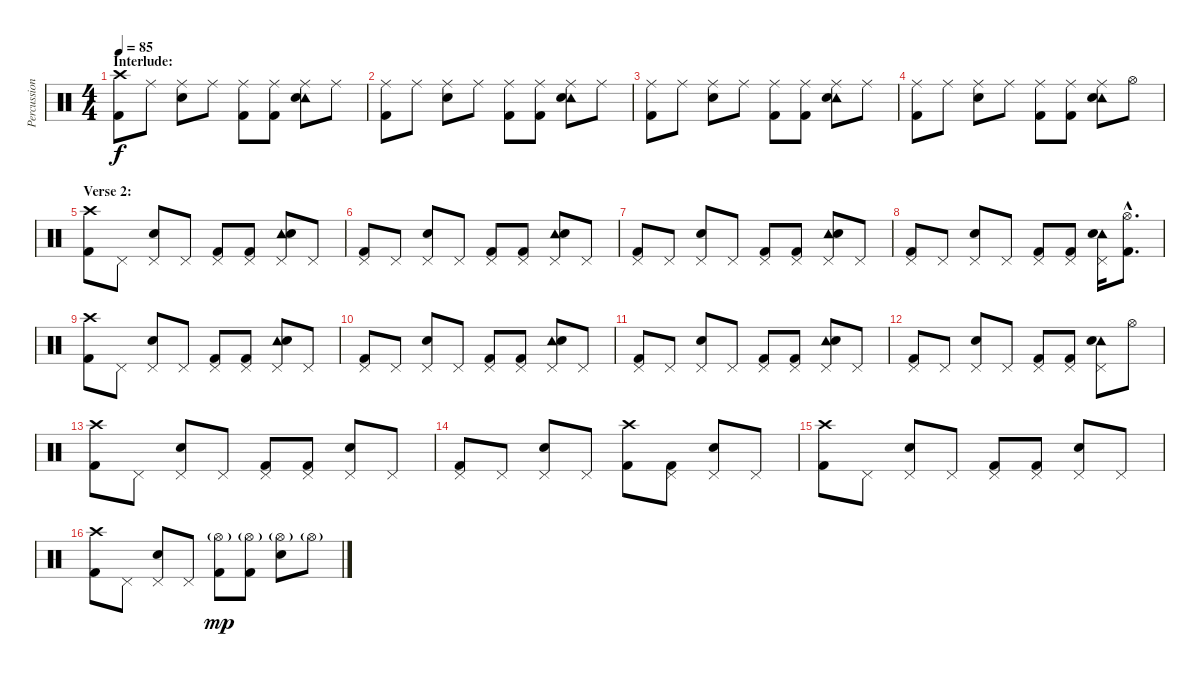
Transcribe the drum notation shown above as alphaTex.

\track ("Percussion" "Percussion") {instrument percussion}
\staff {score}
\articulation defaults
\ts (4 4)
\section ("" "Interlude:")
\tempo 85
\clef neutral
\ks c
("Crash high (hit)" "Kick (hit) 2").8{dy f} "Ride (middle)".8 ("Ride (middle)" "Electric Snare (hit)").8 "Ride (middle)".8 ("Ride (middle)" "Kick (hit) 2").8 ("Ride (middle)" "Kick (hit) 2").8 ("Ride (middle)" "Tambourine (hit)" "Electric Snare (hit)").8 "Ride (middle)".8 |
("Ride (middle)" "Kick (hit) 2").8 "Ride (middle)".8 ("Ride (middle)" "Electric Snare (hit)").8 "Ride (middle)".8 ("Ride (middle)" "Kick (hit) 2").8 ("Ride (middle)" "Kick (hit) 2").8 ("Ride (middle)" "Tambourine (hit)" "Electric Snare (hit)").8 "Ride (middle)".8 |
("Ride (middle)" "Kick (hit) 2").8 "Ride (middle)".8 ("Ride (middle)" "Electric Snare (hit)").8 "Ride (middle)".8 ("Ride (middle)" "Kick (hit) 2").8 ("Ride (middle)" "Kick (hit) 2").8 ("Ride (middle)" "Tambourine (hit)" "Electric Snare (hit)").8 "Ride (middle)".8 |
("Ride (middle)" "Kick (hit) 2").8 "Ride (middle)".8 ("Ride (middle)" "Electric Snare (hit)").8 "Ride (middle)".8 ("Ride (middle)" "Kick (hit) 2").8 ("Ride (middle)" "Kick (hit) 2").8 ("Ride (middle)" "Tambourine (hit)" "Electric Snare (hit)").8 "Hi-Hat (open)".8 |
\section ("" "Verse 2:")
("Crash high (hit)" "Kick (hit) 2").8 "Pedal Hi-Hat (hit)".8 ("Pedal Hi-Hat (hit)" "Electric Snare (hit)").8 "Pedal Hi-Hat (hit)".8 ("Pedal Hi-Hat (hit)" "Kick (hit) 2").8 ("Pedal Hi-Hat (hit)" "Kick (hit) 2").8 ("Pedal Hi-Hat (hit)" "Tambourine (hit)" "Electric Snare (hit)").8 "Pedal Hi-Hat (hit)".8 |
("Pedal Hi-Hat (hit)" "Kick (hit) 2").8 "Pedal Hi-Hat (hit)".8 ("Pedal Hi-Hat (hit)" "Electric Snare (hit)").8 "Pedal Hi-Hat (hit)".8 ("Pedal Hi-Hat (hit)" "Kick (hit) 2").8 ("Pedal Hi-Hat (hit)" "Kick (hit) 2").8 ("Pedal Hi-Hat (hit)" "Tambourine (hit)" "Electric Snare (hit)").8 "Pedal Hi-Hat (hit)".8 |
("Pedal Hi-Hat (hit)" "Kick (hit) 2").8 "Pedal Hi-Hat (hit)".8 ("Pedal Hi-Hat (hit)" "Electric Snare (hit)").8 "Pedal Hi-Hat (hit)".8 ("Pedal Hi-Hat (hit)" "Kick (hit) 2").8 ("Pedal Hi-Hat (hit)" "Kick (hit) 2").8 ("Pedal Hi-Hat (hit)" "Tambourine (hit)" "Electric Snare (hit)").8 "Pedal Hi-Hat (hit)".8 |
("Pedal Hi-Hat (hit)" "Kick (hit) 2").8 "Pedal Hi-Hat (hit)".8 ("Pedal Hi-Hat (hit)" "Electric Snare (hit)").8 "Pedal Hi-Hat (hit)".8 ("Pedal Hi-Hat (hit)" "Kick (hit) 2").8 ("Pedal Hi-Hat (hit)" "Kick (hit) 2").8 ("Pedal Hi-Hat (hit)" "Tambourine (hit)" "Electric Snare (hit)").16 ("Hi-Hat (open)"{hac} "Kick (hit) 2"{hac}).8{d} |
("Crash high (hit)" "Kick (hit) 2").8 "Pedal Hi-Hat (hit)".8 ("Pedal Hi-Hat (hit)" "Electric Snare (hit)").8 "Pedal Hi-Hat (hit)".8 ("Pedal Hi-Hat (hit)" "Kick (hit) 2").8 ("Pedal Hi-Hat (hit)" "Kick (hit) 2").8 ("Pedal Hi-Hat (hit)" "Tambourine (hit)" "Electric Snare (hit)").8 "Pedal Hi-Hat (hit)".8 |
("Pedal Hi-Hat (hit)" "Kick (hit) 2").8 "Pedal Hi-Hat (hit)".8 ("Pedal Hi-Hat (hit)" "Electric Snare (hit)").8 "Pedal Hi-Hat (hit)".8 ("Pedal Hi-Hat (hit)" "Kick (hit) 2").8 ("Pedal Hi-Hat (hit)" "Kick (hit) 2").8 ("Pedal Hi-Hat (hit)" "Tambourine (hit)" "Electric Snare (hit)").8 "Pedal Hi-Hat (hit)".8 |
("Pedal Hi-Hat (hit)" "Kick (hit) 2").8 "Pedal Hi-Hat (hit)".8 ("Pedal Hi-Hat (hit)" "Electric Snare (hit)").8 "Pedal Hi-Hat (hit)".8 ("Pedal Hi-Hat (hit)" "Kick (hit) 2").8 ("Pedal Hi-Hat (hit)" "Kick (hit) 2").8 ("Pedal Hi-Hat (hit)" "Tambourine (hit)" "Electric Snare (hit)").8 "Pedal Hi-Hat (hit)".8 |
("Pedal Hi-Hat (hit)" "Kick (hit) 2").8 "Pedal Hi-Hat (hit)".8 ("Pedal Hi-Hat (hit)" "Electric Snare (hit)").8 "Pedal Hi-Hat (hit)".8 ("Pedal Hi-Hat (hit)" "Kick (hit) 2").8 ("Pedal Hi-Hat (hit)" "Kick (hit) 2").8 ("Pedal Hi-Hat (hit)" "Tambourine (hit)" "Electric Snare (hit)").8 "Hi-Hat (open)".8 |
("Crash high (hit)" "Kick (hit) 2").8 "Pedal Hi-Hat (hit)".8 ("Pedal Hi-Hat (hit)" "Electric Snare (hit)").8 "Pedal Hi-Hat (hit)".8 ("Pedal Hi-Hat (hit)" "Kick (hit) 2").8 ("Pedal Hi-Hat (hit)" "Kick (hit) 2").8 ("Pedal Hi-Hat (hit)" "Electric Snare (hit)").8 "Pedal Hi-Hat (hit)".8 |
("Pedal Hi-Hat (hit)" "Kick (hit) 2").8 "Pedal Hi-Hat (hit)".8 ("Pedal Hi-Hat (hit)" "Electric Snare (hit)").8 "Pedal Hi-Hat (hit)".8 ("Crash high (hit)" "Kick (hit) 2").8 ("Pedal Hi-Hat (hit)" "Kick (hit) 2").8 ("Pedal Hi-Hat (hit)" "Electric Snare (hit)").8 "Pedal Hi-Hat (hit)".8 |
("Crash high (hit)" "Kick (hit) 2").8 "Pedal Hi-Hat (hit)".8 ("Pedal Hi-Hat (hit)" "Electric Snare (hit)").8 "Pedal Hi-Hat (hit)".8 ("Pedal Hi-Hat (hit)" "Kick (hit) 2").8 ("Pedal Hi-Hat (hit)" "Kick (hit) 2").8 ("Pedal Hi-Hat (hit)" "Electric Snare (hit)").8 "Pedal Hi-Hat (hit)".8 |
("Crash high (hit)" "Kick (hit) 2").8 "Pedal Hi-Hat (hit)".8 ("Pedal Hi-Hat (hit)" "Electric Snare (hit)").8 "Pedal Hi-Hat (hit)".8 ("Hi-Hat (open)"{g} "Kick (hit) 2").8{dy mp} ("Hi-Hat (open)"{g} "Kick (hit) 2").8 ("Hi-Hat (open)"{g} "Electric Snare (hit)").8 "Hi-Hat (open)"{g}.8
